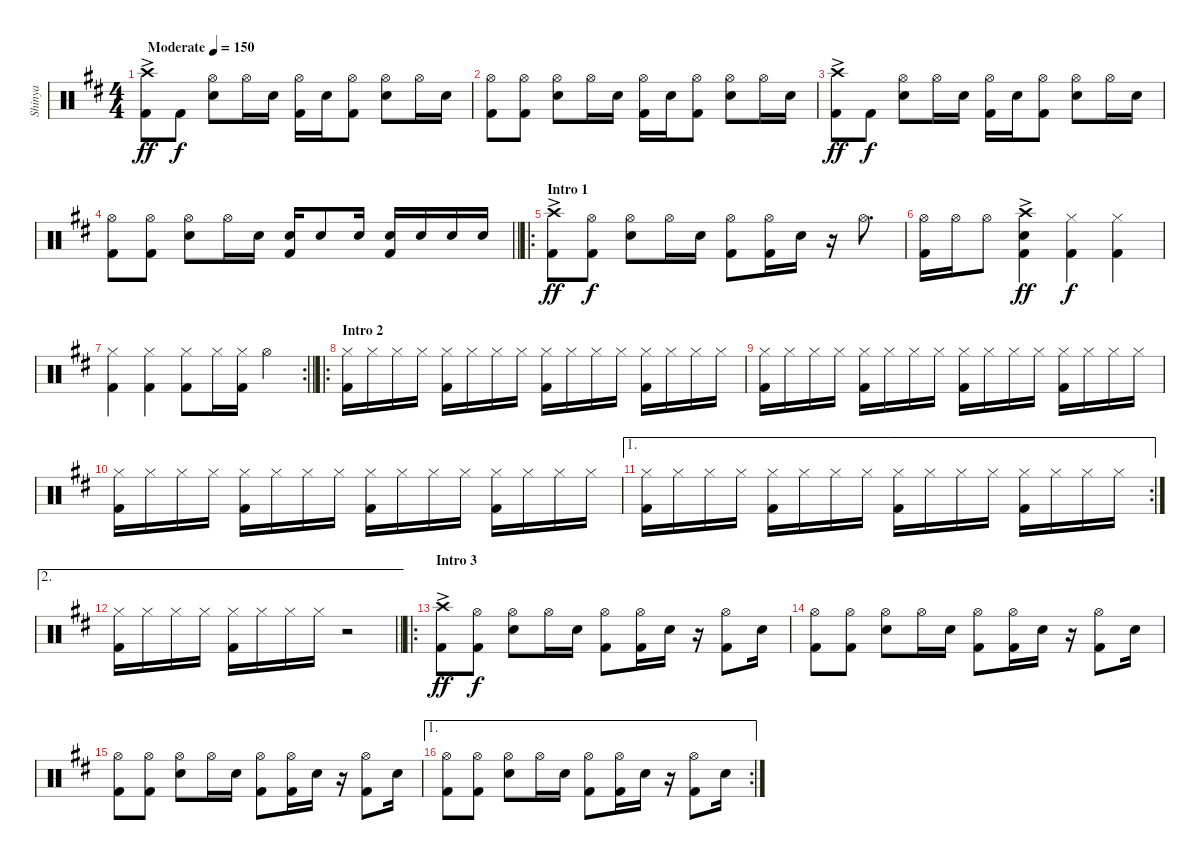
\track ("Shinya" "Shinya") {instrument percussion}
\staff {score}
\articulation defaults
\ts (4 4)
\tempo (150 "Moderate")
\clef neutral
\ks d
("Crash high (hit)"{ac} "Kick (hit) 2").8{dy ff} "Kick (hit) 2".8{dy f} ("Hi-Hat (open)" "Snare (hit) 2").8 "Hi-Hat (open)".16 "Snare (hit) 2".16 ("Hi-Hat (open)" "Kick (hit) 2").16 "Snare (hit) 2".16 ("Hi-Hat (open)" "Kick (hit) 2").8 ("Hi-Hat (open)" "Snare (hit) 2").8 "Hi-Hat (open)".16 "Snare (hit) 2".16 |
("Hi-Hat (open)" "Kick (hit) 2").8 ("Hi-Hat (open)" "Kick (hit) 2").8 ("Hi-Hat (open)" "Snare (hit) 2").8 "Hi-Hat (open)".16 "Snare (hit) 2".16 ("Hi-Hat (open)" "Kick (hit) 2").16 "Snare (hit) 2".16 ("Hi-Hat (open)" "Kick (hit) 2").8 ("Hi-Hat (open)" "Snare (hit) 2").8 "Hi-Hat (open)".16 "Snare (hit) 2".16 |
("Crash high (hit)"{ac} "Kick (hit) 2").8{dy ff} "Kick (hit) 2".8{dy f} ("Hi-Hat (open)" "Snare (hit) 2").8 "Hi-Hat (open)".16 "Snare (hit) 2".16 ("Hi-Hat (open)" "Kick (hit) 2").16 "Snare (hit) 2".16 ("Hi-Hat (open)" "Kick (hit) 2").8 ("Hi-Hat (open)" "Snare (hit) 2").8 "Hi-Hat (open)".16 "Snare (hit) 2".16 |
\barLineRight lightlight
("Hi-Hat (open)" "Kick (hit) 2").8 ("Hi-Hat (open)" "Kick (hit) 2").8 ("Hi-Hat (open)" "Snare (hit) 2").8 "Hi-Hat (open)".16 "Snare (hit) 2".16 ("Snare (hit) 2" "Kick (hit) 2").16 "Snare (hit) 2".8 "Snare (hit) 2".16 ("Snare (hit) 2" "Kick (hit) 2").16 "Snare (hit) 2".16 "Snare (hit) 2".16 "Snare (hit) 2".16 |
\ro
\section ("" "Intro 1")
("Crash high (hit)"{ac} "Kick (hit) 2").8{dy ff} ("Hi-Hat (open)" "Kick (hit) 2").8{dy f} ("Hi-Hat (open)" "Snare (hit) 2").8 "Hi-Hat (open)".16 "Snare (hit) 2".16 ("Hi-Hat (open)" "Kick (hit) 2").8 ("Hi-Hat (open)" "Kick (hit) 2").16 "Snare (hit) 2".16 r.16 "Hi-Hat (open)".8{d} |
("Hi-Hat (open)" "Kick (hit) 2").16 "Hi-Hat (open)".16 "Hi-Hat (open)".8 ("Crash high (hit)"{ac} "Snare (hit) 2" "Kick (hit) 2").4{dy ff} ("Hi-Hat (closed)" "Kick (hit) 2").4{dy f} ("Hi-Hat (closed)" "Kick (hit) 2").4 |
\rc 2
\barLineRight lightlight
("Hi-Hat (closed)" "Kick (hit) 2").4 ("Hi-Hat (closed)" "Kick (hit) 2").4 ("Hi-Hat (closed)" "Kick (hit) 2").8 "Hi-Hat (closed)".16 ("Hi-Hat (closed)" "Kick (hit) 2").16 "Hi-Hat (open)".4 |
\ro
\section ("" "Intro 2")
("Hi-Hat (closed)" "Kick (hit) 2").16 "Hi-Hat (closed)".16 "Hi-Hat (closed)".16 "Hi-Hat (closed)".16 ("Hi-Hat (closed)" "Kick (hit) 2").16 "Hi-Hat (closed)".16 "Hi-Hat (closed)".16 "Hi-Hat (closed)".16 ("Hi-Hat (closed)" "Kick (hit) 2").16 "Hi-Hat (closed)".16 "Hi-Hat (closed)".16 "Hi-Hat (closed)".16 ("Hi-Hat (closed)" "Kick (hit) 2").16 "Hi-Hat (closed)".16 "Hi-Hat (closed)".16 "Hi-Hat (closed)".16 |
("Hi-Hat (closed)" "Kick (hit) 2").16 "Hi-Hat (closed)".16 "Hi-Hat (closed)".16 "Hi-Hat (closed)".16 ("Hi-Hat (closed)" "Kick (hit) 2").16 "Hi-Hat (closed)".16 "Hi-Hat (closed)".16 "Hi-Hat (closed)".16 ("Hi-Hat (closed)" "Kick (hit) 2").16 "Hi-Hat (closed)".16 "Hi-Hat (closed)".16 "Hi-Hat (closed)".16 ("Hi-Hat (closed)" "Kick (hit) 2").16 "Hi-Hat (closed)".16 "Hi-Hat (closed)".16 "Hi-Hat (closed)".16 |
("Hi-Hat (closed)" "Kick (hit) 2").16 "Hi-Hat (closed)".16 "Hi-Hat (closed)".16 "Hi-Hat (closed)".16 ("Hi-Hat (closed)" "Kick (hit) 2").16 "Hi-Hat (closed)".16 "Hi-Hat (closed)".16 "Hi-Hat (closed)".16 ("Hi-Hat (closed)" "Kick (hit) 2").16 "Hi-Hat (closed)".16 "Hi-Hat (closed)".16 "Hi-Hat (closed)".16 ("Hi-Hat (closed)" "Kick (hit) 2").16 "Hi-Hat (closed)".16 "Hi-Hat (closed)".16 "Hi-Hat (closed)".16 |
\ae 1
\rc 2
("Hi-Hat (closed)" "Kick (hit) 2").16 "Hi-Hat (closed)".16 "Hi-Hat (closed)".16 "Hi-Hat (closed)".16 ("Hi-Hat (closed)" "Kick (hit) 2").16 "Hi-Hat (closed)".16 "Hi-Hat (closed)".16 "Hi-Hat (closed)".16 ("Hi-Hat (closed)" "Kick (hit) 2").16 "Hi-Hat (closed)".16 "Hi-Hat (closed)".16 "Hi-Hat (closed)".16 ("Hi-Hat (closed)" "Kick (hit) 2").16 "Hi-Hat (closed)".16 "Hi-Hat (closed)".16 "Hi-Hat (closed)".16 |
\ae 2
\barLineRight lightlight
("Hi-Hat (closed)" "Kick (hit) 2").16 "Hi-Hat (closed)".16 "Hi-Hat (closed)".16 "Hi-Hat (closed)".16 ("Hi-Hat (closed)" "Kick (hit) 2").16 "Hi-Hat (closed)".16 "Hi-Hat (closed)".16 "Hi-Hat (closed)".16 r.2 |
\ro
\section ("" "Intro 3")
("Crash high (hit)"{ac} "Kick (hit) 2").8{dy ff} ("Hi-Hat (open)" "Kick (hit) 2").8{dy f} ("Hi-Hat (open)" "Snare (hit) 2").8 "Hi-Hat (open)".16 "Snare (hit) 2".16 ("Hi-Hat (open)" "Kick (hit) 2").8 ("Hi-Hat (open)" "Kick (hit) 2").16 "Snare (hit) 2".16 r.16 ("Hi-Hat (open)" "Kick (hit) 2").8 "Snare (hit) 2".16 |
("Hi-Hat (open)" "Kick (hit) 2").8 ("Hi-Hat (open)" "Kick (hit) 2").8 ("Hi-Hat (open)" "Snare (hit) 2").8 "Hi-Hat (open)".16 "Snare (hit) 2".16 ("Hi-Hat (open)" "Kick (hit) 2").8 ("Hi-Hat (open)" "Kick (hit) 2").16 "Snare (hit) 2".16 r.16 ("Hi-Hat (open)" "Kick (hit) 2").8 "Snare (hit) 2".16 |
("Hi-Hat (open)" "Kick (hit) 2").8 ("Hi-Hat (open)" "Kick (hit) 2").8 ("Hi-Hat (open)" "Snare (hit) 2").8 "Hi-Hat (open)".16 "Snare (hit) 2".16 ("Hi-Hat (open)" "Kick (hit) 2").8 ("Hi-Hat (open)" "Kick (hit) 2").16 "Snare (hit) 2".16 r.16 ("Hi-Hat (open)" "Kick (hit) 2").8 "Snare (hit) 2".16 |
\ae 1
\rc 2
("Hi-Hat (open)" "Kick (hit) 2").8 ("Hi-Hat (open)" "Kick (hit) 2").8 ("Hi-Hat (open)" "Snare (hit) 2").8 "Hi-Hat (open)".16 "Snare (hit) 2".16 ("Hi-Hat (open)" "Kick (hit) 2").8 ("Hi-Hat (open)" "Kick (hit) 2").16 "Snare (hit) 2".16 r.16 ("Hi-Hat (open)" "Kick (hit) 2").8 "Snare (hit) 2".16
